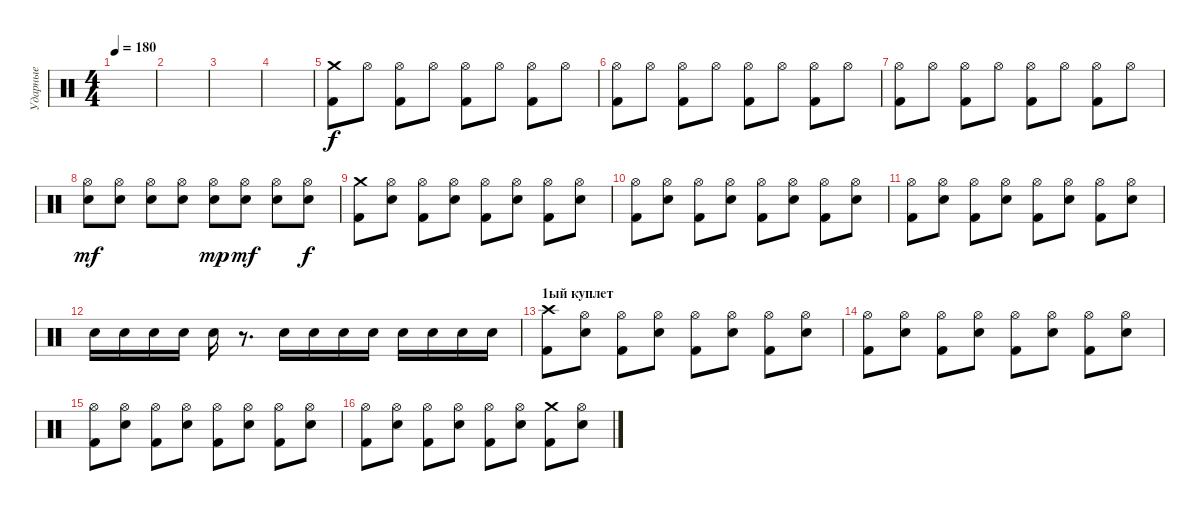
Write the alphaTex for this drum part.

\track ("Ударные" "Ударные") {instrument percussion}
\staff {score}
\articulation defaults
\ts (4 4)
\tempo 180
\clef neutral
\ks c
|
|
|
|
("Crash medium (hit)" "Kick (hit) 2").8 "Hi-Hat (open)".8 ("Hi-Hat (open)" "Kick (hit) 2").8 "Hi-Hat (open)".8 ("Hi-Hat (open)" "Kick (hit) 2").8 "Hi-Hat (open)".8 ("Hi-Hat (open)" "Kick (hit) 2").8 "Hi-Hat (open)".8 |
("Hi-Hat (open)" "Kick (hit) 2").8 "Hi-Hat (open)".8 ("Hi-Hat (open)" "Kick (hit) 2").8 "Hi-Hat (open)".8 ("Hi-Hat (open)" "Kick (hit) 2").8 "Hi-Hat (open)".8 ("Hi-Hat (open)" "Kick (hit) 2").8 "Hi-Hat (open)".8 |
("Hi-Hat (open)" "Kick (hit) 2").8 "Hi-Hat (open)".8 ("Hi-Hat (open)" "Kick (hit) 2").8 "Hi-Hat (open)".8 ("Hi-Hat (open)" "Kick (hit) 2").8 "Hi-Hat (open)".8 ("Hi-Hat (open)" "Kick (hit) 2").8 "Hi-Hat (open)".8 |
("Hi-Hat (open)" "Electric Snare (hit)").8{dy mf} ("Hi-Hat (open)" "Electric Snare (hit)").8 ("Hi-Hat (open)" "Electric Snare (hit)").8 ("Hi-Hat (open)" "Electric Snare (hit)").8 ("Hi-Hat (open)" "Electric Snare (hit)").8{dy mp} ("Hi-Hat (open)" "Electric Snare (hit)").8{dy mf} ("Hi-Hat (open)" "Electric Snare (hit)").8 ("Hi-Hat (open)" "Electric Snare (hit)").8{dy f} |
("Crash medium (hit)" "Kick (hit) 2").8 ("Hi-Hat (open)" "Electric Snare (hit)").8 ("Hi-Hat (open)" "Kick (hit) 2").8 ("Hi-Hat (open)" "Electric Snare (hit)").8 ("Hi-Hat (open)" "Kick (hit) 2").8 ("Hi-Hat (open)" "Electric Snare (hit)").8 ("Hi-Hat (open)" "Kick (hit) 2").8 ("Hi-Hat (open)" "Electric Snare (hit)").8 |
("Hi-Hat (open)" "Kick (hit) 2").8 ("Hi-Hat (open)" "Electric Snare (hit)").8 ("Hi-Hat (open)" "Kick (hit) 2").8 ("Hi-Hat (open)" "Electric Snare (hit)").8 ("Hi-Hat (open)" "Kick (hit) 2").8 ("Hi-Hat (open)" "Electric Snare (hit)").8 ("Hi-Hat (open)" "Kick (hit) 2").8 ("Hi-Hat (open)" "Electric Snare (hit)").8 |
("Hi-Hat (open)" "Kick (hit) 2").8 ("Hi-Hat (open)" "Electric Snare (hit)").8 ("Hi-Hat (open)" "Kick (hit) 2").8 ("Hi-Hat (open)" "Electric Snare (hit)").8 ("Hi-Hat (open)" "Kick (hit) 2").8 ("Hi-Hat (open)" "Electric Snare (hit)").8 ("Hi-Hat (open)" "Kick (hit) 2").8 ("Hi-Hat (open)" "Electric Snare (hit)").8 |
"Electric Snare (hit)".16 "Electric Snare (hit)".16 "Electric Snare (hit)".16 "Electric Snare (hit)".16 "Electric Snare (hit)".16 r.8{d} "Electric Snare (hit)".16 "Electric Snare (hit)".16 "Electric Snare (hit)".16 "Electric Snare (hit)".16 "Electric Snare (hit)".16 "Electric Snare (hit)".16 "Electric Snare (hit)".16 "Electric Snare (hit)".16 |
\section ("" "1ый куплет")
("Crash high (hit)" "Kick (hit) 2").8 ("Hi-Hat (open)" "Electric Snare (hit)").8 ("Hi-Hat (open)" "Kick (hit) 2").8 ("Hi-Hat (open)" "Electric Snare (hit)").8 ("Hi-Hat (open)" "Kick (hit) 2").8 ("Hi-Hat (open)" "Electric Snare (hit)").8 ("Hi-Hat (open)" "Kick (hit) 2").8 ("Hi-Hat (open)" "Electric Snare (hit)").8 |
("Hi-Hat (open)" "Kick (hit) 2").8 ("Hi-Hat (open)" "Electric Snare (hit)").8 ("Hi-Hat (open)" "Kick (hit) 2").8 ("Hi-Hat (open)" "Electric Snare (hit)").8 ("Hi-Hat (open)" "Kick (hit) 2").8 ("Hi-Hat (open)" "Electric Snare (hit)").8 ("Hi-Hat (open)" "Kick (hit) 2").8 ("Hi-Hat (open)" "Electric Snare (hit)").8 |
("Hi-Hat (open)" "Kick (hit) 2").8 ("Hi-Hat (open)" "Electric Snare (hit)").8 ("Hi-Hat (open)" "Kick (hit) 2").8 ("Hi-Hat (open)" "Electric Snare (hit)").8 ("Hi-Hat (open)" "Kick (hit) 2").8 ("Hi-Hat (open)" "Electric Snare (hit)").8 ("Hi-Hat (open)" "Kick (hit) 2").8 ("Hi-Hat (open)" "Electric Snare (hit)").8 |
("Hi-Hat (open)" "Kick (hit) 2").8 ("Hi-Hat (open)" "Electric Snare (hit)").8 ("Hi-Hat (open)" "Kick (hit) 2").8 ("Hi-Hat (open)" "Electric Snare (hit)").8 ("Hi-Hat (open)" "Kick (hit) 2").8 ("Hi-Hat (open)" "Electric Snare (hit)").8 ("Crash medium (hit)" "Kick (hit) 2").8 ("Hi-Hat (open)" "Electric Snare (hit)").8
